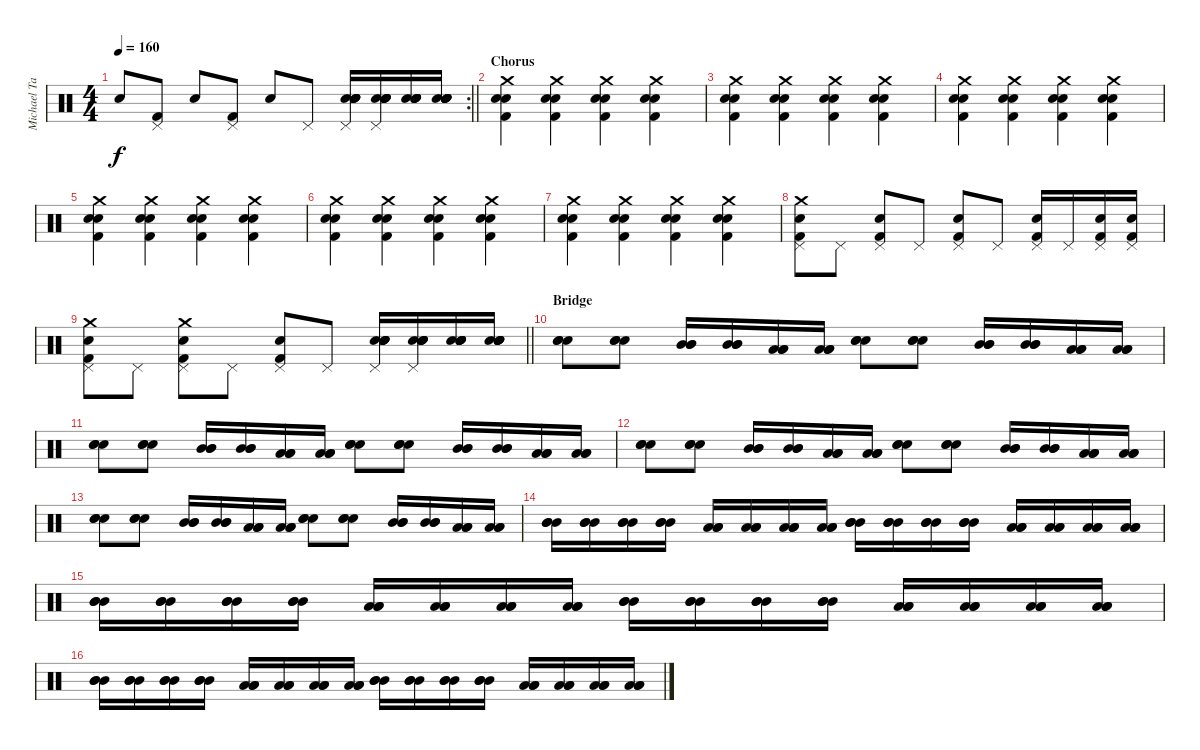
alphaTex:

\track ("Michael Tapper" "Michael Ta") {instrument percussion}
\staff {score}
\articulation defaults
\rc 2
\ts (4 4)
\tempo 160
\clef neutral
\barLineRight lightlight
\ks c "Electric Snare (hit)".8{dy f}
("Pedal Hi-Hat (hit)" "Kick (hit) 2").8 "Electric Snare (hit)".8 ("Pedal Hi-Hat (hit)" "Kick (hit) 2").8 "Electric Snare (hit)".8 "Pedal Hi-Hat (hit)".8 ("Pedal Hi-Hat (hit)" "Electric Snare (hit)" "Electric Snare (hit)" "Electric Snare (hit)" "Electric Snare (hit)" "Electric Snare (hit)").16 ("Pedal Hi-Hat (hit)" "Electric Snare (hit)" "Electric Snare (hit)" "Electric Snare (hit)" "Electric Snare (hit)" "Electric Snare (hit)").16 ("Electric Snare (hit)" "Electric Snare (hit)" "Electric Snare (hit)" "Electric Snare (hit)" "Electric Snare (hit)").16 ("Electric Snare (hit)" "Electric Snare (hit)" "Electric Snare (hit)" "Electric Snare (hit)" "Electric Snare (hit)").16 |
\section ("" "Chorus")
("Crash medium (hit)" "Electric Snare (hit)" "Electric Snare (hit)" "Kick (hit) 2").4 ("Crash medium (hit)" "Electric Snare (hit)" "Electric Snare (hit)" "Kick (hit) 2").4 ("Crash medium (hit)" "Electric Snare (hit)" "Electric Snare (hit)" "Kick (hit) 2").4 ("Crash medium (hit)" "Electric Snare (hit)" "Electric Snare (hit)" "Kick (hit) 2").4 |
("Crash medium (hit)" "Electric Snare (hit)" "Electric Snare (hit)" "Kick (hit) 2").4 ("Crash medium (hit)" "Electric Snare (hit)" "Electric Snare (hit)" "Kick (hit) 2").4 ("Crash medium (hit)" "Electric Snare (hit)" "Electric Snare (hit)" "Kick (hit) 2").4 ("Crash medium (hit)" "Electric Snare (hit)" "Electric Snare (hit)" "Kick (hit) 2").4 |
("Crash medium (hit)" "Electric Snare (hit)" "Electric Snare (hit)" "Kick (hit) 2").4 ("Crash medium (hit)" "Electric Snare (hit)" "Electric Snare (hit)" "Kick (hit) 2").4 ("Crash medium (hit)" "Electric Snare (hit)" "Electric Snare (hit)" "Kick (hit) 2").4 ("Crash medium (hit)" "Electric Snare (hit)" "Electric Snare (hit)" "Kick (hit) 2").4 |
("Crash medium (hit)" "Electric Snare (hit)" "Electric Snare (hit)" "Kick (hit) 2").4 ("Crash medium (hit)" "Electric Snare (hit)" "Electric Snare (hit)" "Kick (hit) 2").4 ("Crash medium (hit)" "Electric Snare (hit)" "Electric Snare (hit)" "Kick (hit) 2").4 ("Crash medium (hit)" "Electric Snare (hit)" "Electric Snare (hit)" "Kick (hit) 2").4 |
("Crash medium (hit)" "Electric Snare (hit)" "Electric Snare (hit)" "Kick (hit) 2").4 ("Crash medium (hit)" "Electric Snare (hit)" "Electric Snare (hit)" "Kick (hit) 2").4 ("Crash medium (hit)" "Electric Snare (hit)" "Electric Snare (hit)" "Kick (hit) 2").4 ("Crash medium (hit)" "Electric Snare (hit)" "Electric Snare (hit)" "Kick (hit) 2").4 |
("Crash medium (hit)" "Electric Snare (hit)" "Electric Snare (hit)" "Kick (hit) 2").4 ("Crash medium (hit)" "Electric Snare (hit)" "Electric Snare (hit)" "Kick (hit) 2").4 ("Crash medium (hit)" "Electric Snare (hit)" "Electric Snare (hit)" "Kick (hit) 2").4 ("Crash medium (hit)" "Electric Snare (hit)" "Electric Snare (hit)" "Kick (hit) 2").4 |
("Crash medium (hit)" "Pedal Hi-Hat (hit)" "Electric Snare (hit)" "Kick (hit) 2").8 "Pedal Hi-Hat (hit)".8 ("Pedal Hi-Hat (hit)" "Electric Snare (hit)" "Kick (hit) 2").8 "Pedal Hi-Hat (hit)".8 ("Pedal Hi-Hat (hit)" "Electric Snare (hit)" "Kick (hit) 2").8 "Pedal Hi-Hat (hit)".8 ("Pedal Hi-Hat (hit)" "Electric Snare (hit)" "Kick (hit) 2").16 "Pedal Hi-Hat (hit)".16 ("Pedal Hi-Hat (hit)" "Electric Snare (hit)" "Kick (hit) 2").16 ("Pedal Hi-Hat (hit)" "Electric Snare (hit)" "Kick (hit) 2").16 |
\barLineRight lightlight
("Crash medium (hit)" "Pedal Hi-Hat (hit)" "Electric Snare (hit)" "Kick (hit) 2").8 "Pedal Hi-Hat (hit)".8 ("Crash medium (hit)" "Pedal Hi-Hat (hit)" "Electric Snare (hit)" "Kick (hit) 2").8 "Pedal Hi-Hat (hit)".8 ("Pedal Hi-Hat (hit)" "Electric Snare (hit)" "Kick (hit) 2").8 "Pedal Hi-Hat (hit)".8 ("Pedal Hi-Hat (hit)" "Electric Snare (hit)" "Electric Snare (hit)" "Electric Snare (hit)" "Electric Snare (hit)" "Electric Snare (hit)").16 ("Pedal Hi-Hat (hit)" "Electric Snare (hit)" "Electric Snare (hit)" "Electric Snare (hit)" "Electric Snare (hit)" "Electric Snare (hit)").16 ("Electric Snare (hit)" "Electric Snare (hit)" "Electric Snare (hit)" "Electric Snare (hit)" "Electric Snare (hit)").16 ("Electric Snare (hit)" "Electric Snare (hit)" "Electric Snare (hit)" "Electric Snare (hit)" "Electric Snare (hit)").16 |
\section ("" "Bridge")
("Electric Snare (hit)" "Electric Snare (hit)" "Electric Snare (hit)").8 ("Electric Snare (hit)" "Electric Snare (hit)" "Electric Snare (hit)").8 ("Mid Tom (hit)" "Mid Tom (hit)" "Mid Tom (hit)").16 ("Mid Tom (hit)" "Mid Tom (hit)" "Mid Tom (hit)").16 ("Low Tom (hit)" "Low Tom (hit)" "Low Tom (hit)").16 ("Low Tom (hit)" "Low Tom (hit)" "Low Tom (hit)").16 ("Electric Snare (hit)" "Electric Snare (hit)" "Electric Snare (hit)").8 ("Electric Snare (hit)" "Electric Snare (hit)" "Electric Snare (hit)").8 ("Mid Tom (hit)" "Mid Tom (hit)" "Mid Tom (hit)").16 ("Mid Tom (hit)" "Mid Tom (hit)" "Mid Tom (hit)").16 ("Low Tom (hit)" "Low Tom (hit)" "Low Tom (hit)").16 ("Low Tom (hit)" "Low Tom (hit)" "Low Tom (hit)").16 |
("Electric Snare (hit)" "Electric Snare (hit)" "Electric Snare (hit)").8 ("Electric Snare (hit)" "Electric Snare (hit)" "Electric Snare (hit)").8 ("Mid Tom (hit)" "Mid Tom (hit)" "Mid Tom (hit)").16 ("Mid Tom (hit)" "Mid Tom (hit)" "Mid Tom (hit)").16 ("Low Tom (hit)" "Low Tom (hit)" "Low Tom (hit)").16 ("Low Tom (hit)" "Low Tom (hit)" "Low Tom (hit)").16 ("Electric Snare (hit)" "Electric Snare (hit)" "Electric Snare (hit)").8 ("Electric Snare (hit)" "Electric Snare (hit)" "Electric Snare (hit)").8 ("Mid Tom (hit)" "Mid Tom (hit)" "Mid Tom (hit)").16 ("Mid Tom (hit)" "Mid Tom (hit)" "Mid Tom (hit)").16 ("Low Tom (hit)" "Low Tom (hit)" "Low Tom (hit)").16 ("Low Tom (hit)" "Low Tom (hit)" "Low Tom (hit)").16 |
("Electric Snare (hit)" "Electric Snare (hit)" "Electric Snare (hit)").8 ("Electric Snare (hit)" "Electric Snare (hit)" "Electric Snare (hit)").8 ("Mid Tom (hit)" "Mid Tom (hit)" "Mid Tom (hit)").16 ("Mid Tom (hit)" "Mid Tom (hit)" "Mid Tom (hit)").16 ("Low Tom (hit)" "Low Tom (hit)" "Low Tom (hit)").16 ("Low Tom (hit)" "Low Tom (hit)" "Low Tom (hit)").16 ("Electric Snare (hit)" "Electric Snare (hit)" "Electric Snare (hit)").8 ("Electric Snare (hit)" "Electric Snare (hit)" "Electric Snare (hit)").8 ("Mid Tom (hit)" "Mid Tom (hit)" "Mid Tom (hit)").16 ("Mid Tom (hit)" "Mid Tom (hit)" "Mid Tom (hit)").16 ("Low Tom (hit)" "Low Tom (hit)" "Low Tom (hit)").16 ("Low Tom (hit)" "Low Tom (hit)" "Low Tom (hit)").16 |
("Electric Snare (hit)" "Electric Snare (hit)" "Electric Snare (hit)").8 ("Electric Snare (hit)" "Electric Snare (hit)" "Electric Snare (hit)").8 ("Mid Tom (hit)" "Mid Tom (hit)" "Mid Tom (hit)").16 ("Mid Tom (hit)" "Mid Tom (hit)" "Mid Tom (hit)").16 ("Low Tom (hit)" "Low Tom (hit)" "Low Tom (hit)").16 ("Low Tom (hit)" "Low Tom (hit)" "Low Tom (hit)").16 ("Electric Snare (hit)" "Electric Snare (hit)" "Electric Snare (hit)").8 ("Electric Snare (hit)" "Electric Snare (hit)" "Electric Snare (hit)").8 ("Mid Tom (hit)" "Mid Tom (hit)" "Mid Tom (hit)").16 ("Mid Tom (hit)" "Mid Tom (hit)" "Mid Tom (hit)").16 ("Low Tom (hit)" "Low Tom (hit)" "Low Tom (hit)").16 ("Low Tom (hit)" "Low Tom (hit)" "Low Tom (hit)").16 |
("Mid Tom (hit)" "Mid Tom (hit)" "Mid Tom (hit)").16 ("Mid Tom (hit)" "Mid Tom (hit)" "Mid Tom (hit)").16 ("Mid Tom (hit)" "Mid Tom (hit)" "Mid Tom (hit)").16 ("Mid Tom (hit)" "Mid Tom (hit)" "Mid Tom (hit)").16 ("Low Tom (hit)" "Low Tom (hit)" "Low Tom (hit)").16 ("Low Tom (hit)" "Low Tom (hit)" "Low Tom (hit)").16 ("Low Tom (hit)" "Low Tom (hit)" "Low Tom (hit)").16 ("Low Tom (hit)" "Low Tom (hit)" "Low Tom (hit)").16 ("Mid Tom (hit)" "Mid Tom (hit)" "Mid Tom (hit)").16 ("Mid Tom (hit)" "Mid Tom (hit)" "Mid Tom (hit)").16 ("Mid Tom (hit)" "Mid Tom (hit)" "Mid Tom (hit)").16 ("Mid Tom (hit)" "Mid Tom (hit)" "Mid Tom (hit)").16 ("Low Tom (hit)" "Low Tom (hit)" "Low Tom (hit)").16 ("Low Tom (hit)" "Low Tom (hit)" "Low Tom (hit)").16 ("Low Tom (hit)" "Low Tom (hit)" "Low Tom (hit)").16 ("Low Tom (hit)" "Low Tom (hit)" "Low Tom (hit)").16 |
("Mid Tom (hit)" "Mid Tom (hit)" "Mid Tom (hit)").16 ("Mid Tom (hit)" "Mid Tom (hit)" "Mid Tom (hit)").16 ("Mid Tom (hit)" "Mid Tom (hit)" "Mid Tom (hit)").16 ("Mid Tom (hit)" "Mid Tom (hit)" "Mid Tom (hit)").16 ("Low Tom (hit)" "Low Tom (hit)" "Low Tom (hit)").16 ("Low Tom (hit)" "Low Tom (hit)" "Low Tom (hit)").16 ("Low Tom (hit)" "Low Tom (hit)" "Low Tom (hit)").16 ("Low Tom (hit)" "Low Tom (hit)" "Low Tom (hit)").16 ("Mid Tom (hit)" "Mid Tom (hit)" "Mid Tom (hit)").16 ("Mid Tom (hit)" "Mid Tom (hit)" "Mid Tom (hit)").16 ("Mid Tom (hit)" "Mid Tom (hit)" "Mid Tom (hit)").16 ("Mid Tom (hit)" "Mid Tom (hit)" "Mid Tom (hit)").16 ("Low Tom (hit)" "Low Tom (hit)" "Low Tom (hit)").16 ("Low Tom (hit)" "Low Tom (hit)" "Low Tom (hit)").16 ("Low Tom (hit)" "Low Tom (hit)" "Low Tom (hit)").16 ("Low Tom (hit)" "Low Tom (hit)" "Low Tom (hit)").16 |
("Mid Tom (hit)" "Mid Tom (hit)" "Mid Tom (hit)").16 ("Mid Tom (hit)" "Mid Tom (hit)" "Mid Tom (hit)").16 ("Mid Tom (hit)" "Mid Tom (hit)" "Mid Tom (hit)").16 ("Mid Tom (hit)" "Mid Tom (hit)" "Mid Tom (hit)").16 ("Low Tom (hit)" "Low Tom (hit)" "Low Tom (hit)").16 ("Low Tom (hit)" "Low Tom (hit)" "Low Tom (hit)").16 ("Low Tom (hit)" "Low Tom (hit)" "Low Tom (hit)").16 ("Low Tom (hit)" "Low Tom (hit)" "Low Tom (hit)").16 ("Mid Tom (hit)" "Mid Tom (hit)" "Mid Tom (hit)").16 ("Mid Tom (hit)" "Mid Tom (hit)" "Mid Tom (hit)").16 ("Mid Tom (hit)" "Mid Tom (hit)" "Mid Tom (hit)").16 ("Mid Tom (hit)" "Mid Tom (hit)" "Mid Tom (hit)").16 ("Low Tom (hit)" "Low Tom (hit)" "Low Tom (hit)").16 ("Low Tom (hit)" "Low Tom (hit)" "Low Tom (hit)").16 ("Low Tom (hit)" "Low Tom (hit)" "Low Tom (hit)").16 ("Low Tom (hit)" "Low Tom (hit)" "Low Tom (hit)").16
